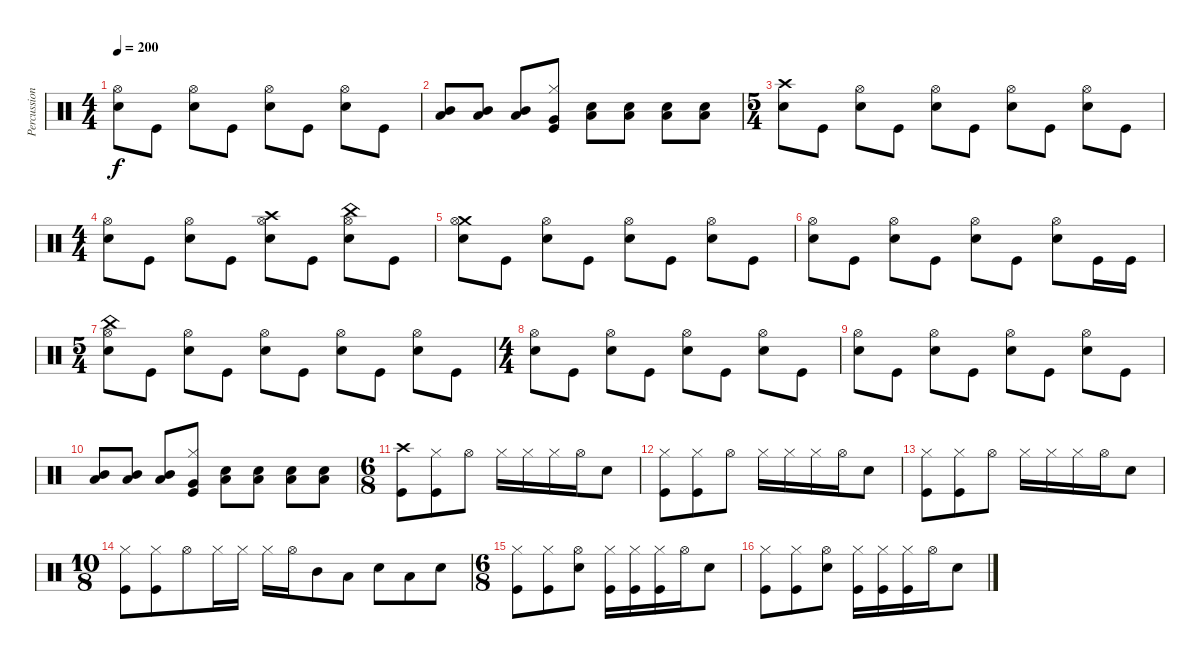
\track ("Percussion" "Percussion") {instrument percussion}
\staff {score}
\articulation defaults
\ts (4 4)
\tempo 200
\clef neutral
\ks c
("Hi-Hat (open)" "Electric Snare (hit)").8{dy f} "Kick (hit)".8 ("Hi-Hat (open)" "Electric Snare (hit)").8 "Kick (hit)".8 ("Hi-Hat (open)" "Electric Snare (hit)").8 "Kick (hit)".8 ("Hi-Hat (open)" "Electric Snare (hit)").8 "Kick (hit)".8 |
("Mid Tom (hit)" "Low Tom (hit)").8 ("Mid Tom (hit)" "Low Tom (hit)").8 ("Mid Tom (hit)" "Low Tom (hit)").8 ("Hi-Hat (closed)" "Very Low Tom (hit)" "Kick (hit)").8 ("Low Tom (hit)" "Electric Snare (hit)").8 ("Low Tom (hit)" "Electric Snare (hit)").8 ("Low Tom (hit)" "Electric Snare (hit)").8 ("Low Tom (hit)" "Electric Snare (hit)").8 |
\ts (5 4)
("Crash high (hit)" "Electric Snare (hit)").8 "Kick (hit)".8 ("Hi-Hat (open)" "Electric Snare (hit)").8 "Kick (hit)".8 ("Hi-Hat (open)" "Electric Snare (hit)").8 "Kick (hit)".8 ("Hi-Hat (open)" "Electric Snare (hit)").8 "Kick (hit)".8 ("Hi-Hat (open)" "Electric Snare (hit)").8 "Kick (hit)".8 |
\ts (4 4)
("Hi-Hat (open)" "Electric Snare (hit)").8 "Kick (hit)".8 ("Hi-Hat (open)" "Electric Snare (hit)").8 "Kick (hit)".8 ("Crash high (hit)" "Hi-Hat (open)" "Electric Snare (hit)").8 "Kick (hit)".8 ("China (hit)" "Hi-Hat (open)" "Electric Snare (hit)").8 "Kick (hit)".8 |
("Crash medium (hit)" "Hi-Hat (open)" "Electric Snare (hit)").8 "Kick (hit)".8 ("Hi-Hat (open)" "Electric Snare (hit)").8 "Kick (hit)".8 ("Hi-Hat (open)" "Electric Snare (hit)").8 "Kick (hit)".8 ("Hi-Hat (open)" "Electric Snare (hit)").8 "Kick (hit)".8 |
("Hi-Hat (open)" "Electric Snare (hit)").8 "Kick (hit)".8 ("Hi-Hat (open)" "Electric Snare (hit)").8 "Kick (hit)".8 ("Hi-Hat (open)" "Electric Snare (hit)").8 "Kick (hit)".8 ("Hi-Hat (open)" "Electric Snare (hit)").8 "Kick (hit)".16 "Kick (hit)".16 |
\ts (5 4)
("China (hit)" "Hi-Hat (open)" "Electric Snare (hit)").8 "Kick (hit)".8 ("Hi-Hat (open)" "Electric Snare (hit)").8 "Kick (hit)".8 ("Hi-Hat (open)" "Electric Snare (hit)").8 "Kick (hit)".8 ("Hi-Hat (open)" "Electric Snare (hit)").8 "Kick (hit)".8 ("Hi-Hat (open)" "Electric Snare (hit)").8 "Kick (hit)".8 |
\ts (4 4)
("Hi-Hat (open)" "Electric Snare (hit)").8 "Kick (hit)".8 ("Hi-Hat (open)" "Electric Snare (hit)").8 "Kick (hit)".8 ("Hi-Hat (open)" "Electric Snare (hit)").8 "Kick (hit)".8 ("Hi-Hat (open)" "Electric Snare (hit)").8 "Kick (hit)".8 |
("Hi-Hat (open)" "Electric Snare (hit)").8 "Kick (hit)".8 ("Hi-Hat (open)" "Electric Snare (hit)").8 "Kick (hit)".8 ("Hi-Hat (open)" "Electric Snare (hit)").8 "Kick (hit)".8 ("Hi-Hat (open)" "Electric Snare (hit)").8 "Kick (hit)".8 |
("Mid Tom (hit)" "Low Tom (hit)").8 ("Mid Tom (hit)" "Low Tom (hit)").8 ("Mid Tom (hit)" "Low Tom (hit)").8 ("Hi-Hat (closed)" "Very Low Tom (hit)" "Kick (hit)").8 ("Low Tom (hit)" "Electric Snare (hit)").8 ("Low Tom (hit)" "Electric Snare (hit)").8 ("Low Tom (hit)" "Electric Snare (hit)").8 ("Low Tom (hit)" "Electric Snare (hit)").8 |
\ts (6 8)
("Crash high (hit)" "Kick (hit)").8 ("Hi-Hat (closed)" "Kick (hit)").8 "Hi-Hat (open)".8 "Hi-Hat (closed)".16 "Hi-Hat (closed)".16 "Hi-Hat (closed)".16 "Hi-Hat (open)".16 "Electric Snare (hit)".8 |
("Hi-Hat (closed)" "Kick (hit)").8 ("Hi-Hat (closed)" "Kick (hit)").8 "Hi-Hat (open)".8 "Hi-Hat (closed)".16 "Hi-Hat (closed)".16 "Hi-Hat (closed)".16 "Hi-Hat (open)".16 "Electric Snare (hit)".8 |
("Hi-Hat (closed)" "Kick (hit)").8 ("Hi-Hat (closed)" "Kick (hit)").8 "Hi-Hat (open)".8 "Hi-Hat (closed)".16 "Hi-Hat (closed)".16 "Hi-Hat (closed)".16 "Hi-Hat (open)".16 "Electric Snare (hit)".8 |
\ts (10 8)
("Hi-Hat (closed)" "Kick (hit)").8 ("Hi-Hat (closed)" "Kick (hit)").8 "Hi-Hat (open)".8 "Hi-Hat (closed)".16 "Hi-Hat (closed)".16 "Hi-Hat (closed)".16 "Hi-Hat (open)".16 "Mid Tom (hit)".8 "Low Tom (hit)".8 "Electric Snare (hit)".8 "Low Tom (hit)".8 "Electric Snare (hit)".8 |
\ts (6 8)
("Hi-Hat (closed)" "Kick (hit)").8 ("Hi-Hat (closed)" "Kick (hit)").8 ("Hi-Hat (open)" "Electric Snare (hit)").8 ("Hi-Hat (closed)" "Kick (hit)").16 ("Hi-Hat (closed)" "Kick (hit)").16 ("Hi-Hat (closed)" "Kick (hit)").16 "Hi-Hat (open)".16 "Electric Snare (hit)".8 |
("Hi-Hat (closed)" "Kick (hit)").8 ("Hi-Hat (closed)" "Kick (hit)").8 ("Hi-Hat (open)" "Electric Snare (hit)").8 ("Hi-Hat (closed)" "Kick (hit)").16 ("Hi-Hat (closed)" "Kick (hit)").16 ("Hi-Hat (closed)" "Kick (hit)").16 "Hi-Hat (open)".16 "Electric Snare (hit)".8
